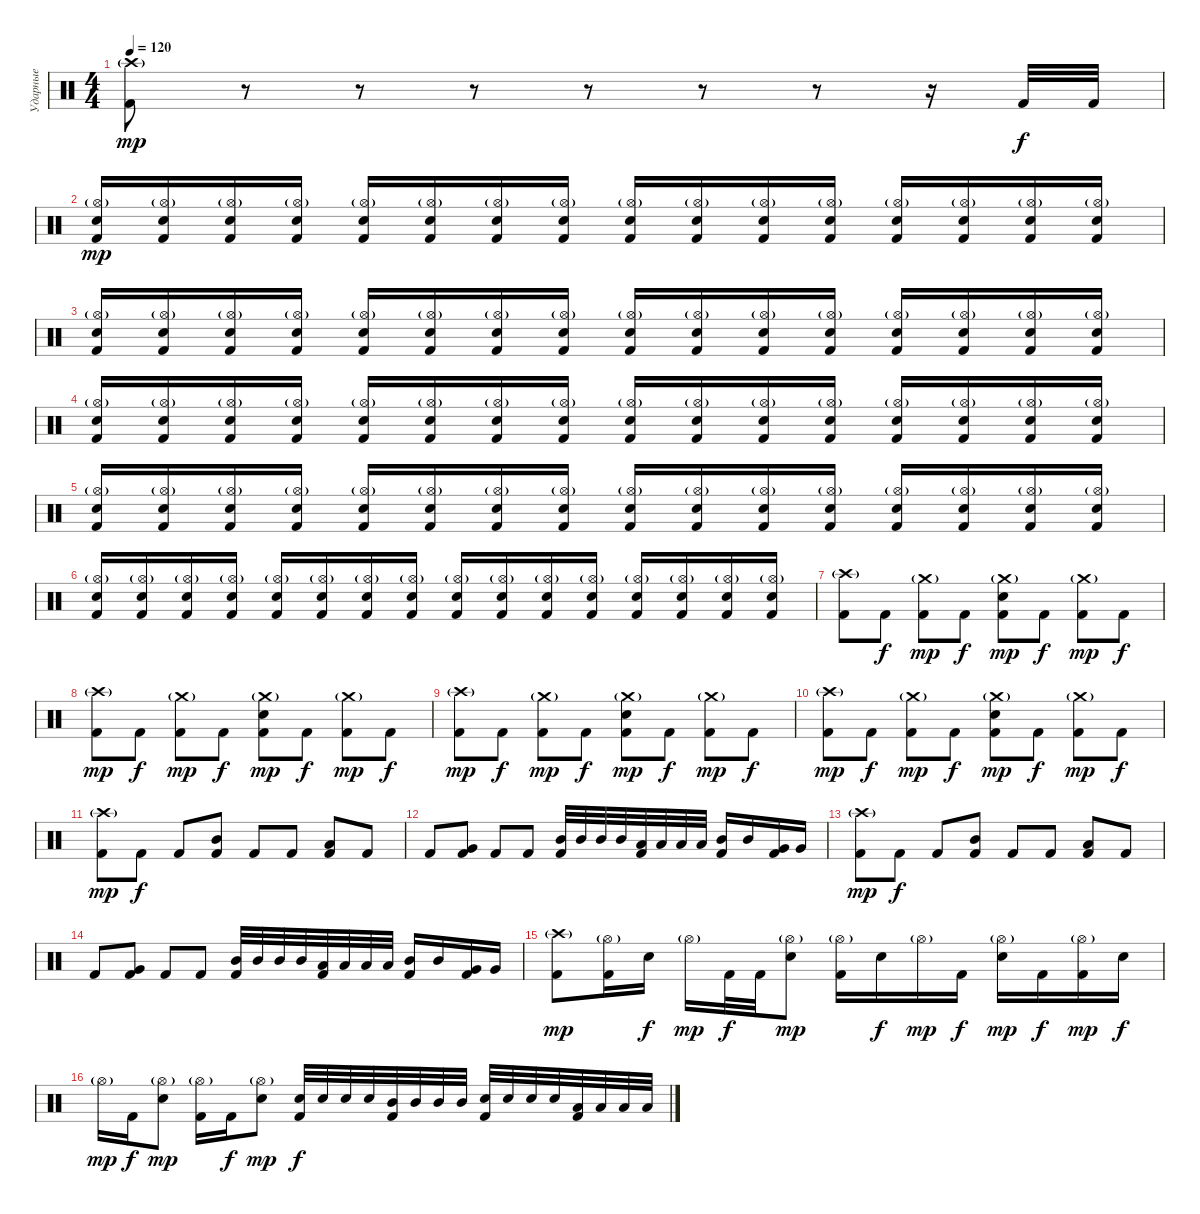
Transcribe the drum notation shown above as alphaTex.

\track ("Ударные" "Ударные") {instrument percussion}
\staff {score}
\articulation defaults
\ts (4 4)
\tempo 120
\clef neutral
\ks c
("Crash high (hit)"{g} "Kick (hit) 2").8{dy mp} r.8{volume 0} r.8 r.8 r.8 r.8 r.8 r.16 "Kick (hit) 2".32{dy f volume 16} "Kick (hit) 2".32 |
("Hi-Hat (open)"{g} "Electric Snare (hit)" "Kick (hit) 2").16{dy mp} ("Hi-Hat (open)"{g} "Electric Snare (hit)" "Kick (hit) 2").16 ("Hi-Hat (open)"{g} "Electric Snare (hit)" "Kick (hit) 2").16 ("Hi-Hat (open)"{g} "Electric Snare (hit)" "Kick (hit) 2").16 ("Hi-Hat (open)"{g} "Electric Snare (hit)" "Kick (hit) 2").16 ("Hi-Hat (open)"{g} "Electric Snare (hit)" "Kick (hit) 2").16 ("Hi-Hat (open)"{g} "Electric Snare (hit)" "Kick (hit) 2").16 ("Hi-Hat (open)"{g} "Electric Snare (hit)" "Kick (hit) 2").16 ("Hi-Hat (open)"{g} "Electric Snare (hit)" "Kick (hit) 2").16 ("Hi-Hat (open)"{g} "Electric Snare (hit)" "Kick (hit) 2").16 ("Hi-Hat (open)"{g} "Electric Snare (hit)" "Kick (hit) 2").16 ("Hi-Hat (open)"{g} "Electric Snare (hit)" "Kick (hit) 2").16 ("Hi-Hat (open)"{g} "Electric Snare (hit)" "Kick (hit) 2").16 ("Hi-Hat (open)"{g} "Electric Snare (hit)" "Kick (hit) 2").16 ("Hi-Hat (open)"{g} "Electric Snare (hit)" "Kick (hit) 2").16 ("Hi-Hat (open)"{g} "Electric Snare (hit)" "Kick (hit) 2").16 |
("Hi-Hat (open)"{g} "Electric Snare (hit)" "Kick (hit) 2").16 ("Hi-Hat (open)"{g} "Electric Snare (hit)" "Kick (hit) 2").16 ("Hi-Hat (open)"{g} "Electric Snare (hit)" "Kick (hit) 2").16 ("Hi-Hat (open)"{g} "Electric Snare (hit)" "Kick (hit) 2").16 ("Hi-Hat (open)"{g} "Electric Snare (hit)" "Kick (hit) 2").16 ("Hi-Hat (open)"{g} "Electric Snare (hit)" "Kick (hit) 2").16 ("Hi-Hat (open)"{g} "Electric Snare (hit)" "Kick (hit) 2").16 ("Hi-Hat (open)"{g} "Electric Snare (hit)" "Kick (hit) 2").16 ("Hi-Hat (open)"{g} "Electric Snare (hit)" "Kick (hit) 2").16 ("Hi-Hat (open)"{g} "Electric Snare (hit)" "Kick (hit) 2").16 ("Hi-Hat (open)"{g} "Electric Snare (hit)" "Kick (hit) 2").16 ("Hi-Hat (open)"{g} "Electric Snare (hit)" "Kick (hit) 2").16 ("Hi-Hat (open)"{g} "Electric Snare (hit)" "Kick (hit) 2").16 ("Hi-Hat (open)"{g} "Electric Snare (hit)" "Kick (hit) 2").16 ("Hi-Hat (open)"{g} "Electric Snare (hit)" "Kick (hit) 2").16 ("Hi-Hat (open)"{g} "Electric Snare (hit)" "Kick (hit) 2").16 |
("Hi-Hat (open)"{g} "Electric Snare (hit)" "Kick (hit) 2").16 ("Hi-Hat (open)"{g} "Electric Snare (hit)" "Kick (hit) 2").16 ("Hi-Hat (open)"{g} "Electric Snare (hit)" "Kick (hit) 2").16 ("Hi-Hat (open)"{g} "Electric Snare (hit)" "Kick (hit) 2").16 ("Hi-Hat (open)"{g} "Electric Snare (hit)" "Kick (hit) 2").16 ("Hi-Hat (open)"{g} "Electric Snare (hit)" "Kick (hit) 2").16 ("Hi-Hat (open)"{g} "Electric Snare (hit)" "Kick (hit) 2").16 ("Hi-Hat (open)"{g} "Electric Snare (hit)" "Kick (hit) 2").16 ("Hi-Hat (open)"{g} "Electric Snare (hit)" "Kick (hit) 2").16 ("Hi-Hat (open)"{g} "Electric Snare (hit)" "Kick (hit) 2").16 ("Hi-Hat (open)"{g} "Electric Snare (hit)" "Kick (hit) 2").16 ("Hi-Hat (open)"{g} "Electric Snare (hit)" "Kick (hit) 2").16 ("Hi-Hat (open)"{g} "Electric Snare (hit)" "Kick (hit) 2").16 ("Hi-Hat (open)"{g} "Electric Snare (hit)" "Kick (hit) 2").16 ("Hi-Hat (open)"{g} "Electric Snare (hit)" "Kick (hit) 2").16 ("Hi-Hat (open)"{g} "Electric Snare (hit)" "Kick (hit) 2").16 |
("Hi-Hat (open)"{g} "Electric Snare (hit)" "Kick (hit) 2").16 ("Hi-Hat (open)"{g} "Electric Snare (hit)" "Kick (hit) 2").16 ("Hi-Hat (open)"{g} "Electric Snare (hit)" "Kick (hit) 2").16 ("Hi-Hat (open)"{g} "Electric Snare (hit)" "Kick (hit) 2").16 ("Hi-Hat (open)"{g} "Electric Snare (hit)" "Kick (hit) 2").16 ("Hi-Hat (open)"{g} "Electric Snare (hit)" "Kick (hit) 2").16 ("Hi-Hat (open)"{g} "Electric Snare (hit)" "Kick (hit) 2").16 ("Hi-Hat (open)"{g} "Electric Snare (hit)" "Kick (hit) 2").16 ("Hi-Hat (open)"{g} "Electric Snare (hit)" "Kick (hit) 2").16 ("Hi-Hat (open)"{g} "Electric Snare (hit)" "Kick (hit) 2").16 ("Hi-Hat (open)"{g} "Electric Snare (hit)" "Kick (hit) 2").16 ("Hi-Hat (open)"{g} "Electric Snare (hit)" "Kick (hit) 2").16 ("Hi-Hat (open)"{g} "Electric Snare (hit)" "Kick (hit) 2").16 ("Hi-Hat (open)"{g} "Electric Snare (hit)" "Kick (hit) 2").16 ("Hi-Hat (open)"{g} "Electric Snare (hit)" "Kick (hit) 2").16 ("Hi-Hat (open)"{g} "Electric Snare (hit)" "Kick (hit) 2").16 |
("Hi-Hat (open)"{g} "Electric Snare (hit)" "Kick (hit) 2").16 ("Hi-Hat (open)"{g} "Electric Snare (hit)" "Kick (hit) 2").16 ("Hi-Hat (open)"{g} "Electric Snare (hit)" "Kick (hit) 2").16 ("Hi-Hat (open)"{g} "Electric Snare (hit)" "Kick (hit) 2").16 ("Hi-Hat (open)"{g} "Electric Snare (hit)" "Kick (hit) 2").16 ("Hi-Hat (open)"{g} "Electric Snare (hit)" "Kick (hit) 2").16 ("Hi-Hat (open)"{g} "Electric Snare (hit)" "Kick (hit) 2").16 ("Hi-Hat (open)"{g} "Electric Snare (hit)" "Kick (hit) 2").16 ("Hi-Hat (open)"{g} "Electric Snare (hit)" "Kick (hit) 2").16 ("Hi-Hat (open)"{g} "Electric Snare (hit)" "Kick (hit) 2").16 ("Hi-Hat (open)"{g} "Electric Snare (hit)" "Kick (hit) 2").16 ("Hi-Hat (open)"{g} "Electric Snare (hit)" "Kick (hit) 2").16 ("Hi-Hat (open)"{g} "Electric Snare (hit)" "Kick (hit) 2").16 ("Hi-Hat (open)"{g} "Electric Snare (hit)" "Kick (hit) 2").16 ("Hi-Hat (open)"{g} "Electric Snare (hit)" "Kick (hit) 2").16 ("Hi-Hat (open)"{g} "Electric Snare (hit)" "Kick (hit) 2").16 |
("Crash high (hit)"{g} "Kick (hit) 2").8 "Kick (hit) 2".8{dy f} ("Crash medium (hit)"{g} "Kick (hit) 2").8{dy mp} "Kick (hit) 2".8{dy f} ("Crash medium (hit)"{g} "Electric Snare (hit)" "Kick (hit) 2").8{dy mp} "Kick (hit) 2".8{dy f} ("Crash medium (hit)"{g} "Kick (hit) 2").8{dy mp} "Kick (hit) 2".8{dy f} |
("Crash high (hit)"{g} "Kick (hit) 2").8{dy mp} "Kick (hit) 2".8{dy f} ("Crash medium (hit)"{g} "Kick (hit) 2").8{dy mp} "Kick (hit) 2".8{dy f} ("Crash medium (hit)"{g} "Electric Snare (hit)" "Kick (hit) 2").8{dy mp} "Kick (hit) 2".8{dy f} ("Crash medium (hit)"{g} "Kick (hit) 2").8{dy mp} "Kick (hit) 2".8{dy f} |
("Crash high (hit)"{g} "Kick (hit) 2").8{dy mp} "Kick (hit) 2".8{dy f} ("Crash medium (hit)"{g} "Kick (hit) 2").8{dy mp} "Kick (hit) 2".8{dy f} ("Crash medium (hit)"{g} "Electric Snare (hit)" "Kick (hit) 2").8{dy mp} "Kick (hit) 2".8{dy f} ("Crash medium (hit)"{g} "Kick (hit) 2").8{dy mp} "Kick (hit) 2".8{dy f} |
("Crash high (hit)"{g} "Kick (hit) 2").8{dy mp} "Kick (hit) 2".8{dy f} ("Crash medium (hit)"{g} "Kick (hit) 2").8{dy mp} "Kick (hit) 2".8{dy f} ("Crash medium (hit)"{g} "Electric Snare (hit)" "Kick (hit) 2").8{dy mp} "Kick (hit) 2".8{dy f} ("Crash medium (hit)"{g} "Kick (hit) 2").8{dy mp} "Kick (hit) 2".8{dy f} |
("Crash high (hit)"{g} "Kick (hit) 2").8{dy mp} "Kick (hit) 2".8{dy f} "Kick (hit) 2".8 ("Mid Tom (hit)" "Kick (hit) 2").8 "Kick (hit) 2".8 "Kick (hit) 2".8 ("Low Tom (hit)" "Kick (hit) 2").8 "Kick (hit) 2".8 |
"Kick (hit) 2".8 ("Very Low Tom (hit)" "Kick (hit) 2").8 "Kick (hit) 2".8 "Kick (hit) 2".8 ("Mid Tom (hit)" "Kick (hit) 2").32 "Mid Tom (hit)".32 "Mid Tom (hit)".32 "Mid Tom (hit)".32 ("Low Tom (hit)" "Kick (hit) 2").32 "Low Tom (hit)".32 "Low Tom (hit)".32 "Low Tom (hit)".32 ("Mid Tom (hit)" "Kick (hit) 2").16 "Mid Tom (hit)".16 ("Very Low Tom (hit)" "Kick (hit) 2").16 "Very Low Tom (hit)".16 |
("Crash high (hit)"{g} "Kick (hit) 2").8{dy mp} "Kick (hit) 2".8{dy f} "Kick (hit) 2".8 ("Mid Tom (hit)" "Kick (hit) 2").8 "Kick (hit) 2".8 "Kick (hit) 2".8 ("Low Tom (hit)" "Kick (hit) 2").8 "Kick (hit) 2".8 |
"Kick (hit) 2".8 ("Very Low Tom (hit)" "Kick (hit) 2").8 "Kick (hit) 2".8 "Kick (hit) 2".8 ("Mid Tom (hit)" "Kick (hit) 2").32 "Mid Tom (hit)".32 "Mid Tom (hit)".32 "Mid Tom (hit)".32 ("Low Tom (hit)" "Kick (hit) 2").32 "Low Tom (hit)".32 "Low Tom (hit)".32 "Low Tom (hit)".32 ("Mid Tom (hit)" "Kick (hit) 2").16 "Mid Tom (hit)".16 ("Very Low Tom (hit)" "Kick (hit) 2").16 "Very Low Tom (hit)".16 |
("Crash high (hit)"{g} "Kick (hit) 2").8{dy mp} ("Hi-Hat (open)"{g} "Kick (hit) 2").16 "Electric Snare (hit)".16{dy f} "Hi-Hat (open)"{g}.16{dy mp} "Kick (hit) 2".32{dy f} "Kick (hit) 2".32 ("Hi-Hat (open)"{g} "Electric Snare (hit)").8{dy mp} ("Hi-Hat (open)"{g} "Kick (hit) 2").16 "Electric Snare (hit)".16{dy f} "Hi-Hat (open)"{g}.16{dy mp} "Kick (hit) 2".16{dy f} ("Hi-Hat (open)"{g} "Electric Snare (hit)").16{dy mp} "Kick (hit) 2".16{dy f} ("Hi-Hat (open)"{g} "Kick (hit) 2").16{dy mp} "Electric Snare (hit)".16{dy f} |
"Hi-Hat (open)"{g}.16{dy mp} "Kick (hit) 2".16{dy f} ("Hi-Hat (open)"{g} "Electric Snare (hit)").8{dy mp} ("Hi-Hat (open)"{g} "Kick (hit) 2").16 "Kick (hit) 2".16{dy f} ("Hi-Hat (open)"{g} "Electric Snare (hit)").8{dy mp} ("Electric Snare (hit)" "Kick (hit) 2").32{dy f} "Electric Snare (hit)".32 "Electric Snare (hit)".32 "Electric Snare (hit)".32 ("Mid Tom (hit)" "Kick (hit) 2").32 "Mid Tom (hit)".32 "Mid Tom (hit)".32 "Mid Tom (hit)".32 ("Electric Snare (hit)" "Kick (hit) 2").32 "Electric Snare (hit)".32 "Electric Snare (hit)".32 "Electric Snare (hit)".32 ("Low Tom (hit)" "Kick (hit) 2").32 "Low Tom (hit)".32 "Low Tom (hit)".32 "Low Tom (hit)".32
